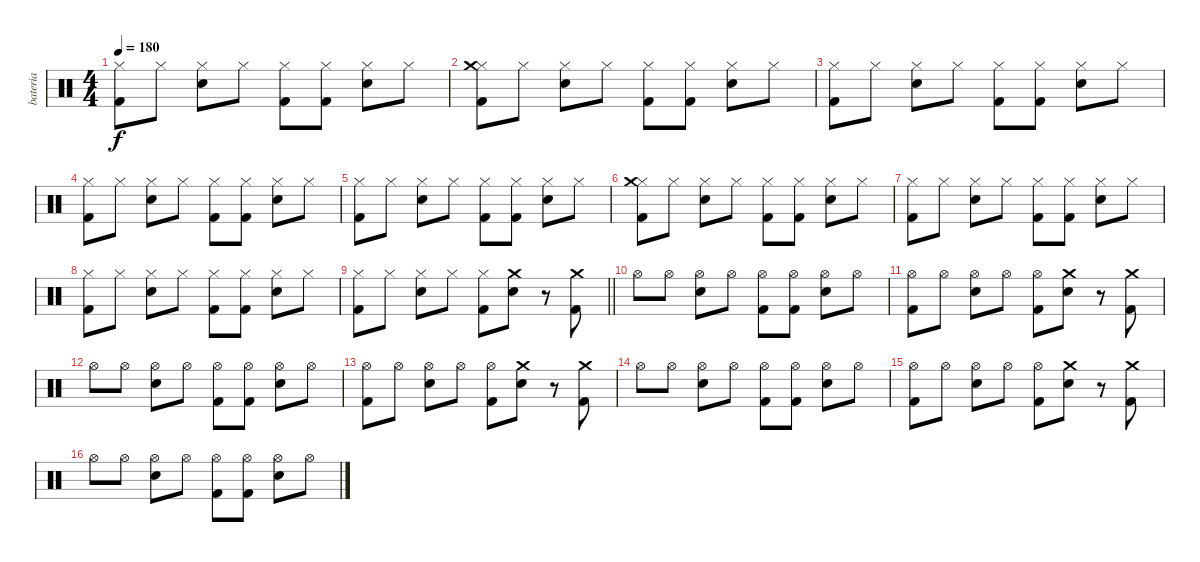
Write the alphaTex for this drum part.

\track ("bateria" "bateria") {instrument percussion}
\staff {score}
\articulation defaults
\ts (4 4)
\tempo 180
\clef neutral
\ks c
("Hi-Hat (closed)" "Kick (hit) 2").8{dy f} "Hi-Hat (closed)".8 ("Hi-Hat (closed)" "Electric Snare (hit)").8 "Hi-Hat (closed)".8 ("Hi-Hat (closed)" "Kick (hit) 2").8 ("Hi-Hat (closed)" "Kick (hit) 2").8 ("Hi-Hat (closed)" "Electric Snare (hit)").8 "Hi-Hat (closed)".8 |
("Hi-Hat (closed)" "Kick (hit) 2" "Crash medium (hit)").8 "Hi-Hat (closed)".8 ("Hi-Hat (closed)" "Electric Snare (hit)").8 "Hi-Hat (closed)".8 ("Hi-Hat (closed)" "Kick (hit) 2").8 ("Hi-Hat (closed)" "Kick (hit) 2").8 ("Hi-Hat (closed)" "Electric Snare (hit)").8 "Hi-Hat (closed)".8 |
("Hi-Hat (closed)" "Kick (hit) 2").8 "Hi-Hat (closed)".8 ("Hi-Hat (closed)" "Electric Snare (hit)").8 "Hi-Hat (closed)".8 ("Hi-Hat (closed)" "Kick (hit) 2").8 ("Hi-Hat (closed)" "Kick (hit) 2").8 ("Hi-Hat (closed)" "Electric Snare (hit)").8 "Hi-Hat (closed)".8 |
("Hi-Hat (closed)" "Kick (hit) 2").8 "Hi-Hat (closed)".8 ("Hi-Hat (closed)" "Electric Snare (hit)").8 "Hi-Hat (closed)".8 ("Hi-Hat (closed)" "Kick (hit) 2").8 ("Hi-Hat (closed)" "Kick (hit) 2").8 ("Hi-Hat (closed)" "Electric Snare (hit)").8 "Hi-Hat (closed)".8 |
("Hi-Hat (closed)" "Kick (hit) 2").8 "Hi-Hat (closed)".8 ("Hi-Hat (closed)" "Electric Snare (hit)").8 "Hi-Hat (closed)".8 ("Hi-Hat (closed)" "Kick (hit) 2").8 ("Hi-Hat (closed)" "Kick (hit) 2").8 ("Hi-Hat (closed)" "Electric Snare (hit)").8 "Hi-Hat (closed)".8 |
("Hi-Hat (closed)" "Kick (hit) 2" "Crash medium (hit)").8 "Hi-Hat (closed)".8 ("Hi-Hat (closed)" "Electric Snare (hit)").8 "Hi-Hat (closed)".8 ("Hi-Hat (closed)" "Kick (hit) 2").8 ("Hi-Hat (closed)" "Kick (hit) 2").8 ("Hi-Hat (closed)" "Electric Snare (hit)").8 "Hi-Hat (closed)".8 |
("Hi-Hat (closed)" "Kick (hit) 2").8 "Hi-Hat (closed)".8 ("Hi-Hat (closed)" "Electric Snare (hit)").8 "Hi-Hat (closed)".8 ("Hi-Hat (closed)" "Kick (hit) 2").8 ("Hi-Hat (closed)" "Kick (hit) 2").8 ("Hi-Hat (closed)" "Electric Snare (hit)").8 "Hi-Hat (closed)".8 |
("Hi-Hat (closed)" "Kick (hit) 2").8 "Hi-Hat (closed)".8 ("Hi-Hat (closed)" "Electric Snare (hit)").8 "Hi-Hat (closed)".8 ("Hi-Hat (closed)" "Kick (hit) 2").8 ("Hi-Hat (closed)" "Kick (hit) 2").8 ("Hi-Hat (closed)" "Electric Snare (hit)").8 "Hi-Hat (closed)".8 |
\barLineRight lightlight
("Hi-Hat (closed)" "Kick (hit) 2").8 "Hi-Hat (closed)".8 ("Hi-Hat (closed)" "Electric Snare (hit)").8 "Hi-Hat (closed)".8 ("Hi-Hat (closed)" "Kick (hit) 2").8 ("Electric Snare (hit)" "Crash medium (hit)").8 r.8 ("Kick (hit) 2" "Crash medium (hit)").8 |
"Hi-Hat (open)".8 "Hi-Hat (open)".8 ("Hi-Hat (open)" "Electric Snare (hit)").8 "Hi-Hat (open)".8 ("Hi-Hat (open)" "Kick (hit) 2").8 ("Hi-Hat (open)" "Kick (hit) 2").8 ("Hi-Hat (open)" "Electric Snare (hit)").8 "Hi-Hat (open)".8 |
("Hi-Hat (open)" "Kick (hit) 2").8 "Hi-Hat (open)".8 ("Hi-Hat (open)" "Electric Snare (hit)").8 "Hi-Hat (open)".8 ("Hi-Hat (open)" "Kick (hit) 2").8 ("Electric Snare (hit)" "Crash medium (hit)").8 r.8 ("Kick (hit) 2" "Crash medium (hit)").8 |
"Hi-Hat (open)".8 "Hi-Hat (open)".8 ("Hi-Hat (open)" "Electric Snare (hit)").8 "Hi-Hat (open)".8 ("Hi-Hat (open)" "Kick (hit) 2").8 ("Hi-Hat (open)" "Kick (hit) 2").8 ("Hi-Hat (open)" "Electric Snare (hit)").8 "Hi-Hat (open)".8 |
("Hi-Hat (open)" "Kick (hit) 2").8 "Hi-Hat (open)".8 ("Hi-Hat (open)" "Electric Snare (hit)").8 "Hi-Hat (open)".8 ("Hi-Hat (open)" "Kick (hit) 2").8 ("Electric Snare (hit)" "Crash medium (hit)").8 r.8 ("Kick (hit) 2" "Crash medium (hit)").8 |
"Hi-Hat (open)".8 "Hi-Hat (open)".8 ("Hi-Hat (open)" "Electric Snare (hit)").8 "Hi-Hat (open)".8 ("Hi-Hat (open)" "Kick (hit) 2").8 ("Hi-Hat (open)" "Kick (hit) 2").8 ("Hi-Hat (open)" "Electric Snare (hit)").8 "Hi-Hat (open)".8 |
("Hi-Hat (open)" "Kick (hit) 2").8 "Hi-Hat (open)".8 ("Hi-Hat (open)" "Electric Snare (hit)").8 "Hi-Hat (open)".8 ("Hi-Hat (open)" "Kick (hit) 2").8 ("Electric Snare (hit)" "Crash medium (hit)").8 r.8 ("Kick (hit) 2" "Crash medium (hit)").8 |
"Hi-Hat (open)".8 "Hi-Hat (open)".8 ("Hi-Hat (open)" "Electric Snare (hit)").8 "Hi-Hat (open)".8 ("Hi-Hat (open)" "Kick (hit) 2").8 ("Hi-Hat (open)" "Kick (hit) 2").8 ("Hi-Hat (open)" "Electric Snare (hit)").8 "Hi-Hat (open)".8
